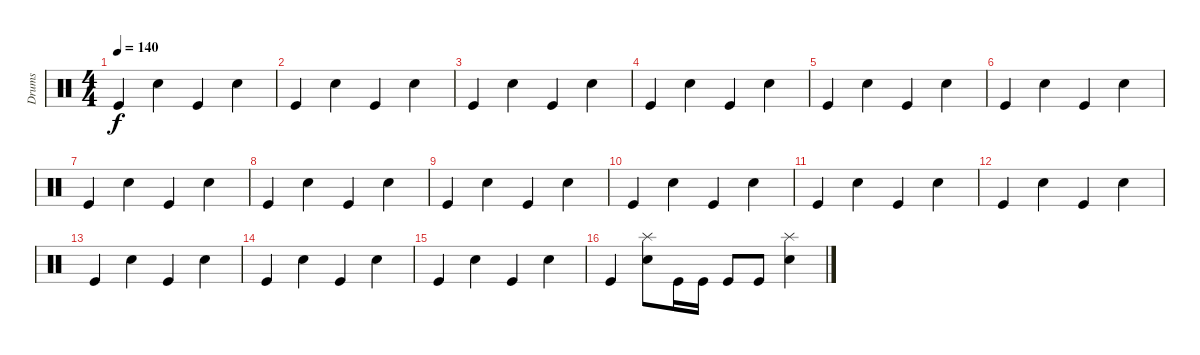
\track ("Drums" "Drums") {instrument percussion}
\staff {score}
\articulation defaults
\ts (4 4)
\tempo 140
\clef neutral
\ks c "Kick (hit)".4{dy f} "Electric Snare (hit)".4 "Kick (hit)".4 "Electric Snare (hit)".4
|
"Kick (hit)".4 "Electric Snare (hit)".4 "Kick (hit)".4 "Electric Snare (hit)".4 |
"Kick (hit)".4 "Electric Snare (hit)".4 "Kick (hit)".4 "Electric Snare (hit)".4 |
"Kick (hit)".4 "Electric Snare (hit)".4 "Kick (hit)".4 "Electric Snare (hit)".4 |
"Kick (hit)".4 "Electric Snare (hit)".4 "Kick (hit)".4 "Electric Snare (hit)".4 |
"Kick (hit)".4 "Electric Snare (hit)".4 "Kick (hit)".4 "Electric Snare (hit)".4 |
"Kick (hit)".4 "Electric Snare (hit)".4 "Kick (hit)".4 "Electric Snare (hit)".4 |
"Kick (hit)".4 "Electric Snare (hit)".4 "Kick (hit)".4 "Electric Snare (hit)".4 |
"Kick (hit)".4 "Electric Snare (hit)".4 "Kick (hit)".4 "Electric Snare (hit)".4 |
"Kick (hit)".4 "Electric Snare (hit)".4 "Kick (hit)".4 "Electric Snare (hit)".4 |
"Kick (hit)".4 "Electric Snare (hit)".4 "Kick (hit)".4 "Electric Snare (hit)".4 |
"Kick (hit)".4 "Electric Snare (hit)".4 "Kick (hit)".4 "Electric Snare (hit)".4 |
"Kick (hit)".4 "Electric Snare (hit)".4 "Kick (hit)".4 "Electric Snare (hit)".4 |
"Kick (hit)".4 "Electric Snare (hit)".4 "Kick (hit)".4 "Electric Snare (hit)".4 |
"Kick (hit)".4 "Electric Snare (hit)".4 "Kick (hit)".4 "Electric Snare (hit)".4 |
"Kick (hit)".4 ("Splash (hit)" "Electric Snare (hit)").8 "Kick (hit)".16 "Kick (hit)".16 "Kick (hit)".8 "Kick (hit)".8 ("Splash (hit)" "Metronome (bell)").4
